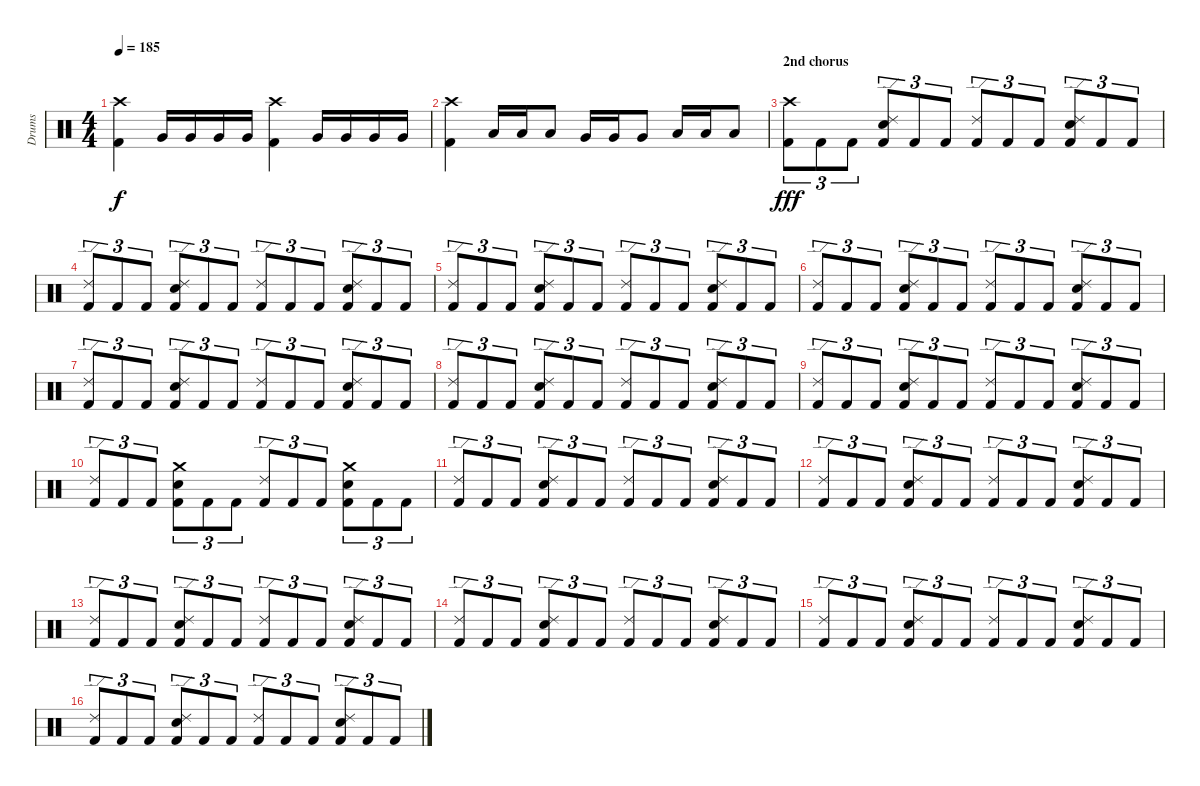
\track ("Drums" "Drums") {instrument percussion}
\staff {score}
\articulation defaults
\ts (4 4)
\tempo 185
\clef neutral
\ks c
("Kick (hit) 2" "Crash high (hit)").4{dy f} "Very Low Tom (hit)".16 "Very Low Tom (hit)".16 "Very Low Tom (hit)".16 "Very Low Tom (hit)".16 ("Kick (hit) 2" "Crash high (hit)").4 "Very Low Tom (hit)".16 "Very Low Tom (hit)".16 "Very Low Tom (hit)".16 "Very Low Tom (hit)".16 |
("Kick (hit) 2" "Crash high (hit)").4 "Low Tom (hit)".16 "Low Tom (hit)".16 "Low Tom (hit)".8 "Very Low Tom (hit)".16 "Very Low Tom (hit)".16 "Very Low Tom (hit)".8 "Low Floor Tom (hit)".16 "Low Floor Tom (hit)".16 "Low Floor Tom (hit)".8 |
\section ("" "2nd chorus")
("Kick (hit) 2" "Crash high (hit)").8{tu (3 2) dy fff} "Kick (hit) 2".8{tu (3 2)} "Kick (hit) 2".8{tu (3 2)} ("Kick (hit) 2" "Snare (hit) 2" "Ride (edge) 2").8{tu (3 2)} "Kick (hit) 2".8{tu (3 2)} "Kick (hit) 2".8{tu (3 2)} ("Kick (hit) 2" "Ride (edge) 2").8{tu (3 2)} "Kick (hit) 2".8{tu (3 2)} "Kick (hit) 2".8{tu (3 2)} ("Kick (hit) 2" "Snare (hit) 2" "Ride (edge) 2").8{tu (3 2)} "Kick (hit) 2".8{tu (3 2)} "Kick (hit) 2".8{tu (3 2)} |
("Kick (hit) 2" "Ride (edge) 2").8{tu (3 2)} "Kick (hit) 2".8{tu (3 2)} "Kick (hit) 2".8{tu (3 2)} ("Kick (hit) 2" "Snare (hit) 2" "Ride (edge) 2").8{tu (3 2)} "Kick (hit) 2".8{tu (3 2)} "Kick (hit) 2".8{tu (3 2)} ("Kick (hit) 2" "Ride (edge) 2").8{tu (3 2)} "Kick (hit) 2".8{tu (3 2)} "Kick (hit) 2".8{tu (3 2)} ("Kick (hit) 2" "Snare (hit) 2" "Ride (edge) 2").8{tu (3 2)} "Kick (hit) 2".8{tu (3 2)} "Kick (hit) 2".8{tu (3 2)} |
("Kick (hit) 2" "Ride (edge) 2").8{tu (3 2)} "Kick (hit) 2".8{tu (3 2)} "Kick (hit) 2".8{tu (3 2)} ("Kick (hit) 2" "Snare (hit) 2" "Ride (edge) 2").8{tu (3 2)} "Kick (hit) 2".8{tu (3 2)} "Kick (hit) 2".8{tu (3 2)} ("Kick (hit) 2" "Ride (edge) 2").8{tu (3 2)} "Kick (hit) 2".8{tu (3 2)} "Kick (hit) 2".8{tu (3 2)} ("Kick (hit) 2" "Snare (hit) 2" "Ride (edge) 2").8{tu (3 2)} "Kick (hit) 2".8{tu (3 2)} "Kick (hit) 2".8{tu (3 2)} |
("Kick (hit) 2" "Ride (edge) 2").8{tu (3 2)} "Kick (hit) 2".8{tu (3 2)} "Kick (hit) 2".8{tu (3 2)} ("Kick (hit) 2" "Snare (hit) 2" "Ride (edge) 2").8{tu (3 2)} "Kick (hit) 2".8{tu (3 2)} "Kick (hit) 2".8{tu (3 2)} ("Kick (hit) 2" "Ride (edge) 2").8{tu (3 2)} "Kick (hit) 2".8{tu (3 2)} "Kick (hit) 2".8{tu (3 2)} ("Kick (hit) 2" "Snare (hit) 2" "Ride (edge) 2").8{tu (3 2)} "Kick (hit) 2".8{tu (3 2)} "Kick (hit) 2".8{tu (3 2)} |
("Kick (hit) 2" "Ride (edge) 2").8{tu (3 2)} "Kick (hit) 2".8{tu (3 2)} "Kick (hit) 2".8{tu (3 2)} ("Kick (hit) 2" "Snare (hit) 2" "Ride (edge) 2").8{tu (3 2)} "Kick (hit) 2".8{tu (3 2)} "Kick (hit) 2".8{tu (3 2)} ("Kick (hit) 2" "Ride (edge) 2").8{tu (3 2)} "Kick (hit) 2".8{tu (3 2)} "Kick (hit) 2".8{tu (3 2)} ("Kick (hit) 2" "Snare (hit) 2" "Ride (edge) 2").8{tu (3 2)} "Kick (hit) 2".8{tu (3 2)} "Kick (hit) 2".8{tu (3 2)} |
("Kick (hit) 2" "Ride (edge) 2").8{tu (3 2)} "Kick (hit) 2".8{tu (3 2)} "Kick (hit) 2".8{tu (3 2)} ("Kick (hit) 2" "Snare (hit) 2" "Ride (edge) 2").8{tu (3 2)} "Kick (hit) 2".8{tu (3 2)} "Kick (hit) 2".8{tu (3 2)} ("Kick (hit) 2" "Ride (edge) 2").8{tu (3 2)} "Kick (hit) 2".8{tu (3 2)} "Kick (hit) 2".8{tu (3 2)} ("Kick (hit) 2" "Snare (hit) 2" "Ride (edge) 2").8{tu (3 2)} "Kick (hit) 2".8{tu (3 2)} "Kick (hit) 2".8{tu (3 2)} |
("Kick (hit) 2" "Ride (edge) 2").8{tu (3 2)} "Kick (hit) 2".8{tu (3 2)} "Kick (hit) 2".8{tu (3 2)} ("Kick (hit) 2" "Snare (hit) 2" "Ride (edge) 2").8{tu (3 2)} "Kick (hit) 2".8{tu (3 2)} "Kick (hit) 2".8{tu (3 2)} ("Kick (hit) 2" "Ride (edge) 2").8{tu (3 2)} "Kick (hit) 2".8{tu (3 2)} "Kick (hit) 2".8{tu (3 2)} ("Kick (hit) 2" "Snare (hit) 2" "Ride (edge) 2").8{tu (3 2)} "Kick (hit) 2".8{tu (3 2)} "Kick (hit) 2".8{tu (3 2)} |
("Kick (hit) 2" "Ride (edge) 2").8{tu (3 2)} "Kick (hit) 2".8{tu (3 2)} "Kick (hit) 2".8{tu (3 2)} ("Kick (hit) 2" "Snare (hit) 2" "Crash medium (hit)").8{tu (3 2)} "Kick (hit) 2".8{tu (3 2)} "Kick (hit) 2".8{tu (3 2)} ("Kick (hit) 2" "Ride (edge) 2").8{tu (3 2)} "Kick (hit) 2".8{tu (3 2)} "Kick (hit) 2".8{tu (3 2)} ("Kick (hit) 2" "Snare (hit) 2" "Crash medium (hit)").8{tu (3 2)} "Kick (hit) 2".8{tu (3 2)} "Kick (hit) 2".8{tu (3 2)} |
("Kick (hit) 2" "Ride (edge) 2").8{tu (3 2)} "Kick (hit) 2".8{tu (3 2)} "Kick (hit) 2".8{tu (3 2)} ("Kick (hit) 2" "Snare (hit) 2" "Ride (edge) 2").8{tu (3 2)} "Kick (hit) 2".8{tu (3 2)} "Kick (hit) 2".8{tu (3 2)} ("Kick (hit) 2" "Ride (edge) 2").8{tu (3 2)} "Kick (hit) 2".8{tu (3 2)} "Kick (hit) 2".8{tu (3 2)} ("Kick (hit) 2" "Snare (hit) 2" "Ride (edge) 2").8{tu (3 2)} "Kick (hit) 2".8{tu (3 2)} "Kick (hit) 2".8{tu (3 2)} |
("Kick (hit) 2" "Ride (edge) 2").8{tu (3 2)} "Kick (hit) 2".8{tu (3 2)} "Kick (hit) 2".8{tu (3 2)} ("Kick (hit) 2" "Snare (hit) 2" "Ride (edge) 2").8{tu (3 2)} "Kick (hit) 2".8{tu (3 2)} "Kick (hit) 2".8{tu (3 2)} ("Kick (hit) 2" "Ride (edge) 2").8{tu (3 2)} "Kick (hit) 2".8{tu (3 2)} "Kick (hit) 2".8{tu (3 2)} ("Kick (hit) 2" "Snare (hit) 2" "Ride (edge) 2").8{tu (3 2)} "Kick (hit) 2".8{tu (3 2)} "Kick (hit) 2".8{tu (3 2)} |
("Kick (hit) 2" "Ride (edge) 2").8{tu (3 2)} "Kick (hit) 2".8{tu (3 2)} "Kick (hit) 2".8{tu (3 2)} ("Kick (hit) 2" "Snare (hit) 2" "Ride (edge) 2").8{tu (3 2)} "Kick (hit) 2".8{tu (3 2)} "Kick (hit) 2".8{tu (3 2)} ("Kick (hit) 2" "Ride (edge) 2").8{tu (3 2)} "Kick (hit) 2".8{tu (3 2)} "Kick (hit) 2".8{tu (3 2)} ("Kick (hit) 2" "Snare (hit) 2" "Ride (edge) 2").8{tu (3 2)} "Kick (hit) 2".8{tu (3 2)} "Kick (hit) 2".8{tu (3 2)} |
("Kick (hit) 2" "Ride (edge) 2").8{tu (3 2)} "Kick (hit) 2".8{tu (3 2)} "Kick (hit) 2".8{tu (3 2)} ("Kick (hit) 2" "Snare (hit) 2" "Ride (edge) 2").8{tu (3 2)} "Kick (hit) 2".8{tu (3 2)} "Kick (hit) 2".8{tu (3 2)} ("Kick (hit) 2" "Ride (edge) 2").8{tu (3 2)} "Kick (hit) 2".8{tu (3 2)} "Kick (hit) 2".8{tu (3 2)} ("Kick (hit) 2" "Snare (hit) 2" "Ride (edge) 2").8{tu (3 2)} "Kick (hit) 2".8{tu (3 2)} "Kick (hit) 2".8{tu (3 2)} |
("Kick (hit) 2" "Ride (edge) 2").8{tu (3 2)} "Kick (hit) 2".8{tu (3 2)} "Kick (hit) 2".8{tu (3 2)} ("Kick (hit) 2" "Snare (hit) 2" "Ride (edge) 2").8{tu (3 2)} "Kick (hit) 2".8{tu (3 2)} "Kick (hit) 2".8{tu (3 2)} ("Kick (hit) 2" "Ride (edge) 2").8{tu (3 2)} "Kick (hit) 2".8{tu (3 2)} "Kick (hit) 2".8{tu (3 2)} ("Kick (hit) 2" "Snare (hit) 2" "Ride (edge) 2").8{tu (3 2)} "Kick (hit) 2".8{tu (3 2)} "Kick (hit) 2".8{tu (3 2)} |
("Kick (hit) 2" "Ride (edge) 2").8{tu (3 2)} "Kick (hit) 2".8{tu (3 2)} "Kick (hit) 2".8{tu (3 2)} ("Kick (hit) 2" "Snare (hit) 2" "Ride (edge) 2").8{tu (3 2)} "Kick (hit) 2".8{tu (3 2)} "Kick (hit) 2".8{tu (3 2)} ("Kick (hit) 2" "Ride (edge) 2").8{tu (3 2)} "Kick (hit) 2".8{tu (3 2)} "Kick (hit) 2".8{tu (3 2)} ("Kick (hit) 2" "Snare (hit) 2" "Ride (edge) 2").8{tu (3 2)} "Kick (hit) 2".8{tu (3 2)} "Kick (hit) 2".8{tu (3 2)}
